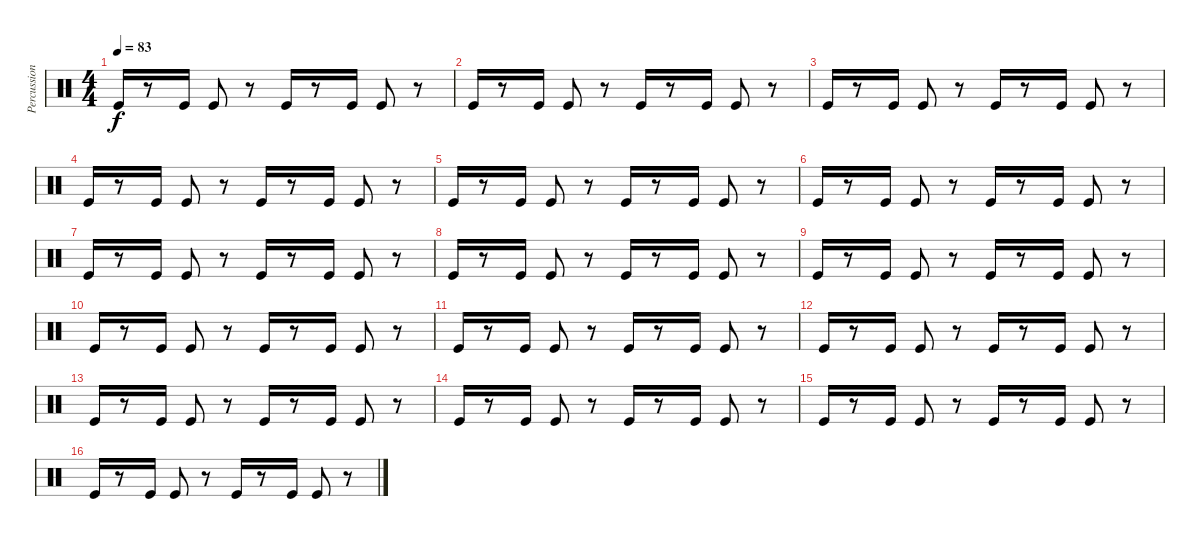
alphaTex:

\track ("Percussion" "Percussion") {instrument percussion}
\staff {score}
\articulation defaults
\ts (4 4)
\tempo 83
\clef neutral
\ks c "Kick (hit)".16{dy f}
r.8 "Kick (hit)".16 "Kick (hit)".8 r.8 "Kick (hit)".16 r.8 "Kick (hit)".16 "Kick (hit)".8 r.8 |
"Kick (hit)".16 r.8 "Kick (hit)".16 "Kick (hit)".8 r.8 "Kick (hit)".16 r.8 "Kick (hit)".16 "Kick (hit)".8 r.8 |
"Kick (hit)".16 r.8 "Kick (hit)".16 "Kick (hit)".8 r.8 "Kick (hit)".16 r.8 "Kick (hit)".16 "Kick (hit)".8 r.8 |
"Kick (hit)".16 r.8 "Kick (hit)".16 "Kick (hit)".8 r.8 "Kick (hit)".16 r.8 "Kick (hit)".16 "Kick (hit)".8 r.8 |
"Kick (hit)".16 r.8 "Kick (hit)".16 "Kick (hit)".8 r.8 "Kick (hit)".16 r.8 "Kick (hit)".16 "Kick (hit)".8 r.8 |
"Kick (hit)".16 r.8 "Kick (hit)".16 "Kick (hit)".8 r.8 "Kick (hit)".16 r.8 "Kick (hit)".16 "Kick (hit)".8 r.8 |
"Kick (hit)".16 r.8 "Kick (hit)".16 "Kick (hit)".8 r.8 "Kick (hit)".16 r.8 "Kick (hit)".16 "Kick (hit)".8 r.8 |
"Kick (hit)".16 r.8 "Kick (hit)".16 "Kick (hit)".8 r.8 "Kick (hit)".16 r.8 "Kick (hit)".16 "Kick (hit)".8 r.8 |
"Kick (hit)".16 r.8 "Kick (hit)".16 "Kick (hit)".8 r.8 "Kick (hit)".16 r.8 "Kick (hit)".16 "Kick (hit)".8 r.8 |
"Kick (hit)".16 r.8 "Kick (hit)".16 "Kick (hit)".8 r.8 "Kick (hit)".16 r.8 "Kick (hit)".16 "Kick (hit)".8 r.8 |
"Kick (hit)".16 r.8 "Kick (hit)".16 "Kick (hit)".8 r.8 "Kick (hit)".16 r.8 "Kick (hit)".16 "Kick (hit)".8 r.8 |
"Kick (hit)".16 r.8 "Kick (hit)".16 "Kick (hit)".8 r.8 "Kick (hit)".16 r.8 "Kick (hit)".16 "Kick (hit)".8 r.8 |
"Kick (hit)".16 r.8 "Kick (hit)".16 "Kick (hit)".8 r.8 "Kick (hit)".16 r.8 "Kick (hit)".16 "Kick (hit)".8 r.8 |
"Kick (hit)".16 r.8 "Kick (hit)".16 "Kick (hit)".8 r.8 "Kick (hit)".16 r.8 "Kick (hit)".16 "Kick (hit)".8 r.8 |
"Kick (hit)".16 r.8 "Kick (hit)".16 "Kick (hit)".8 r.8 "Kick (hit)".16 r.8 "Kick (hit)".16 "Kick (hit)".8 r.8 |
"Kick (hit)".16 r.8 "Kick (hit)".16 "Kick (hit)".8 r.8 "Kick (hit)".16 r.8 "Kick (hit)".16 "Kick (hit)".8 r.8
